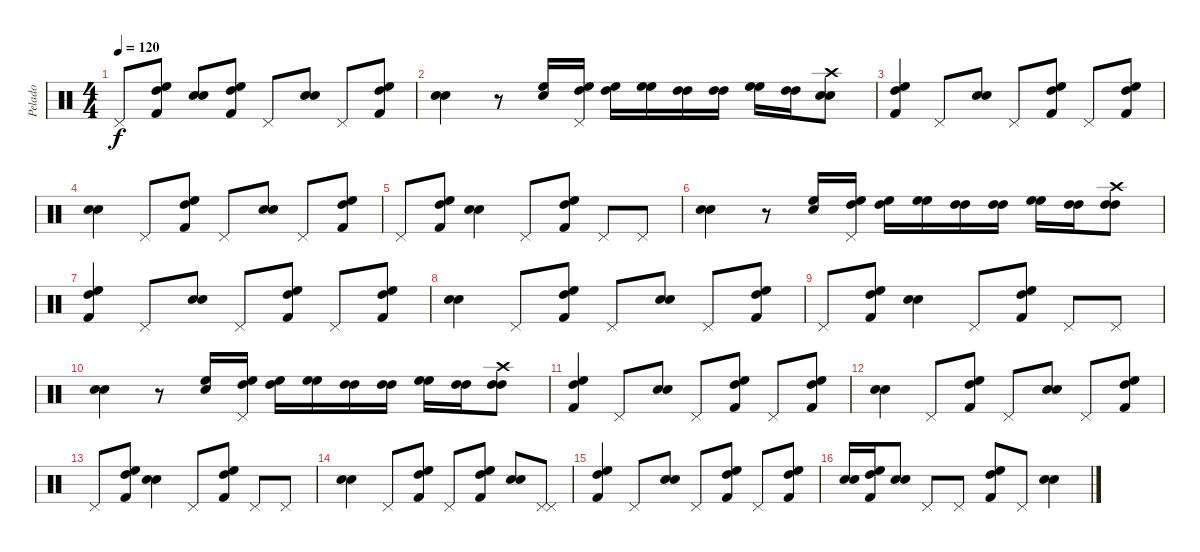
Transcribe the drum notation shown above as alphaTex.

\track ("Pelado" "Pelado") {instrument percussion}
\staff {score}
\articulation defaults
\ts (4 4)
\tempo 120
\clef neutral
\ks c "Pedal Hi-Hat (hit)".8{dy f}
("Kick (hit) 2" "High Floor Tom (hit)" "High Tom (hit)").8 ("Electric Snare (hit)" "Electric Snare (hit)").8 ("Kick (hit) 2" "High Floor Tom (hit)" "High Tom (hit)").8 "Pedal Hi-Hat (hit)".8 ("Electric Snare (hit)" "Electric Snare (hit)").8 "Pedal Hi-Hat (hit)".8 ("Kick (hit) 2" "High Floor Tom (hit)" "High Tom (hit)").8 |
("Electric Snare (hit)" "Electric Snare (hit)").4 r.8 ("High Floor Tom (hit)" "Snare (hit) 2").16 ("Pedal Hi-Hat (hit)" "High Floor Tom (hit)" "High Tom (hit)").16 ("High Floor Tom (hit)" "High Tom (hit)").16 ("High Floor Tom (hit)" "High Floor Tom (hit)").16 ("High Tom (hit)" "High Tom (hit)").16 ("High Tom (hit)" "High Tom (hit)").16 ("High Floor Tom (hit)" "High Floor Tom (hit)").16 ("High Tom (hit)" "High Tom (hit)").16 ("Crash high (hit)" "Electric Snare (hit)" "Electric Snare (hit)").8 |
("Kick (hit) 2" "High Floor Tom (hit)" "High Tom (hit)").4 "Pedal Hi-Hat (hit)".8 ("Electric Snare (hit)" "Electric Snare (hit)").8 "Pedal Hi-Hat (hit)".8 ("Kick (hit) 2" "High Floor Tom (hit)" "High Tom (hit)").8 "Pedal Hi-Hat (hit)".8 ("Kick (hit) 2" "High Floor Tom (hit)" "High Tom (hit)").8 |
("Electric Snare (hit)" "Electric Snare (hit)").4 "Pedal Hi-Hat (hit)".8 ("Kick (hit) 2" "High Floor Tom (hit)" "High Tom (hit)").8 "Pedal Hi-Hat (hit)".8 ("Electric Snare (hit)" "Electric Snare (hit)").8 "Pedal Hi-Hat (hit)".8 ("Kick (hit) 2" "High Floor Tom (hit)" "High Tom (hit)").8 |
"Pedal Hi-Hat (hit)".8 ("Kick (hit) 2" "High Floor Tom (hit)" "High Tom (hit)").8 ("Electric Snare (hit)" "Electric Snare (hit)").4 "Pedal Hi-Hat (hit)".8 ("Kick (hit) 2" "High Floor Tom (hit)" "High Tom (hit)").8 "Pedal Hi-Hat (hit)".8 "Pedal Hi-Hat (hit)".8 |
("Electric Snare (hit)" "Electric Snare (hit)").4 r.8 ("High Floor Tom (hit)" "Snare (hit) 2").16 ("Pedal Hi-Hat (hit)" "High Floor Tom (hit)" "High Tom (hit)").16 ("High Floor Tom (hit)" "High Tom (hit)").16 ("High Floor Tom (hit)" "High Floor Tom (hit)").16 ("High Tom (hit)" "High Tom (hit)").16 ("High Tom (hit)" "High Tom (hit)").16 ("High Floor Tom (hit)" "High Floor Tom (hit)").16 ("High Tom (hit)" "High Tom (hit)").16 ("Crash high (hit)" "High Tom (hit)" "High Tom (hit)").8 |
("Kick (hit) 2" "High Floor Tom (hit)" "High Tom (hit)").4 "Pedal Hi-Hat (hit)".8 ("Electric Snare (hit)" "Electric Snare (hit)").8 "Pedal Hi-Hat (hit)".8 ("Kick (hit) 2" "High Floor Tom (hit)" "High Tom (hit)").8 "Pedal Hi-Hat (hit)".8 ("Kick (hit) 2" "High Floor Tom (hit)" "High Tom (hit)").8 |
("Electric Snare (hit)" "Electric Snare (hit)").4 "Pedal Hi-Hat (hit)".8 ("Kick (hit) 2" "High Floor Tom (hit)" "High Tom (hit)").8 "Pedal Hi-Hat (hit)".8 ("Electric Snare (hit)" "Electric Snare (hit)").8 "Pedal Hi-Hat (hit)".8 ("Kick (hit) 2" "High Floor Tom (hit)" "High Tom (hit)").8 |
"Pedal Hi-Hat (hit)".8 ("Kick (hit) 2" "High Floor Tom (hit)" "High Tom (hit)").8 ("Electric Snare (hit)" "Electric Snare (hit)").4 "Pedal Hi-Hat (hit)".8 ("Kick (hit) 2" "High Floor Tom (hit)" "High Tom (hit)").8 "Pedal Hi-Hat (hit)".8 "Pedal Hi-Hat (hit)".8 |
("Electric Snare (hit)" "Electric Snare (hit)").4 r.8 ("High Floor Tom (hit)" "Snare (hit) 2").16 ("Pedal Hi-Hat (hit)" "High Floor Tom (hit)" "High Tom (hit)").16 ("High Floor Tom (hit)" "High Tom (hit)").16 ("High Floor Tom (hit)" "High Floor Tom (hit)").16 ("High Tom (hit)" "High Tom (hit)").16 ("High Tom (hit)" "High Tom (hit)").16 ("High Floor Tom (hit)" "High Floor Tom (hit)").16 ("High Tom (hit)" "High Tom (hit)").16 ("Crash high (hit)" "High Tom (hit)" "High Tom (hit)").8 |
("Kick (hit) 2" "High Floor Tom (hit)" "High Tom (hit)").4 "Pedal Hi-Hat (hit)".8 ("Electric Snare (hit)" "Electric Snare (hit)").8 "Pedal Hi-Hat (hit)".8 ("Kick (hit) 2" "High Floor Tom (hit)" "High Tom (hit)").8 "Pedal Hi-Hat (hit)".8 ("Kick (hit) 2" "High Floor Tom (hit)" "High Tom (hit)").8 |
("Electric Snare (hit)" "Electric Snare (hit)").4 "Pedal Hi-Hat (hit)".8 ("Kick (hit) 2" "High Floor Tom (hit)" "High Tom (hit)").8 "Pedal Hi-Hat (hit)".8 ("Electric Snare (hit)" "Electric Snare (hit)").8 "Pedal Hi-Hat (hit)".8 ("Kick (hit) 2" "High Floor Tom (hit)" "High Tom (hit)").8 |
"Pedal Hi-Hat (hit)".8 ("Kick (hit) 2" "High Floor Tom (hit)" "High Tom (hit)").8 ("Electric Snare (hit)" "Electric Snare (hit)").4 "Pedal Hi-Hat (hit)".8 ("Kick (hit) 2" "High Floor Tom (hit)" "High Tom (hit)").8 "Pedal Hi-Hat (hit)".8 "Pedal Hi-Hat (hit)".8 |
("Electric Snare (hit)" "Electric Snare (hit)").4 "Pedal Hi-Hat (hit)".8 ("Kick (hit) 2" "High Floor Tom (hit)" "High Tom (hit)").8 "Pedal Hi-Hat (hit)".8 ("Kick (hit) 2" "High Floor Tom (hit)" "High Tom (hit)").8 ("Electric Snare (hit)" "Electric Snare (hit)").8 ("Pedal Hi-Hat (hit)" "Pedal Hi-Hat (hit)").8 |
("Kick (hit) 2" "High Floor Tom (hit)" "High Tom (hit)").4 "Pedal Hi-Hat (hit)".8 ("Electric Snare (hit)" "Electric Snare (hit)").8 "Pedal Hi-Hat (hit)".8 ("Kick (hit) 2" "High Floor Tom (hit)" "High Tom (hit)").8 "Pedal Hi-Hat (hit)".8 ("Kick (hit) 2" "High Floor Tom (hit)" "High Tom (hit)").8 |
("Electric Snare (hit)" "Electric Snare (hit)").16 ("Kick (hit) 2" "High Floor Tom (hit)" "High Tom (hit)").16 ("Electric Snare (hit)" "Electric Snare (hit)").8 "Pedal Hi-Hat (hit)".8 "Pedal Hi-Hat (hit)".8 ("Kick (hit) 2" "High Floor Tom (hit)" "High Tom (hit)").8 "Pedal Hi-Hat (hit)".8 ("Electric Snare (hit)" "Electric Snare (hit)").4
